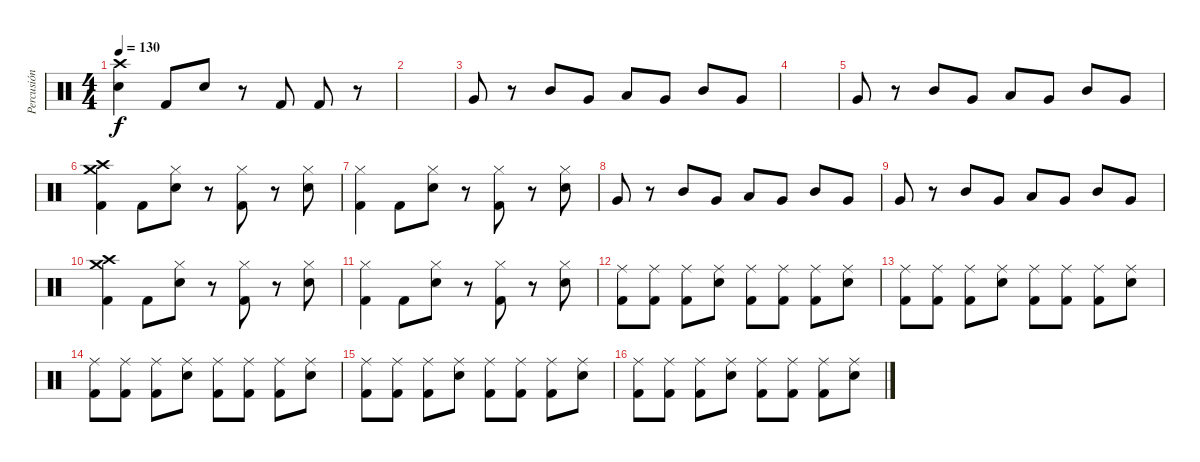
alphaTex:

\track ("Percusión" "Percusión") {instrument percussion}
\staff {score}
\articulation defaults
\ts (4 4)
\tempo 130
\clef neutral
\ks c
("Electric Snare (hit)" "Crash high (hit)").4{dy f} "Kick (hit) 2".8 "Snare (hit) 2".8 r.8 "Kick (hit) 2".8 "Kick (hit) 2".8 r.8 |
|
"Very Low Tom (hit)".8 r.8 "Mid Tom (hit)".8 "Very Low Tom (hit)".8 "Low Floor Tom (hit)".8 "Very Low Tom (hit)".8 "Mid Tom (hit)".8 "Very Low Tom (hit)".8 |
|
"Very Low Tom (hit)".8 r.8 "Mid Tom (hit)".8 "Very Low Tom (hit)".8 "Low Floor Tom (hit)".8 "Very Low Tom (hit)".8 "Mid Tom (hit)".8 "Very Low Tom (hit)".8 |
("Crash high (hit)" "Crash medium (hit)" "Kick (hit) 2").4 "Kick (hit) 2".8 ("Snare (hit) 2" "Hi-Hat (closed)").8 r.8 ("Kick (hit) 2" "Hi-Hat (closed)").8 r.8 ("Snare (hit) 2" "Hi-Hat (closed)").8 |
("Kick (hit) 2" "Hi-Hat (closed)").4 "Kick (hit) 2".8 ("Snare (hit) 2" "Hi-Hat (closed)").8 r.8 ("Kick (hit) 2" "Hi-Hat (closed)").8 r.8 ("Snare (hit) 2" "Hi-Hat (closed)").8 |
"Very Low Tom (hit)".8 r.8 "Mid Tom (hit)".8 "Very Low Tom (hit)".8 "Low Floor Tom (hit)".8 "Very Low Tom (hit)".8 "Mid Tom (hit)".8 "Very Low Tom (hit)".8 |
"Very Low Tom (hit)".8 r.8 "Mid Tom (hit)".8 "Very Low Tom (hit)".8 "Low Floor Tom (hit)".8 "Very Low Tom (hit)".8 "Mid Tom (hit)".8 "Very Low Tom (hit)".8 |
("Crash high (hit)" "Crash medium (hit)" "Kick (hit) 2").4 "Kick (hit) 2".8 ("Snare (hit) 2" "Hi-Hat (closed)").8 r.8 ("Kick (hit) 2" "Hi-Hat (closed)").8 r.8 ("Snare (hit) 2" "Hi-Hat (closed)").8 |
("Kick (hit) 2" "Hi-Hat (closed)").4 "Kick (hit) 2".8 ("Snare (hit) 2" "Hi-Hat (closed)").8 r.8 ("Kick (hit) 2" "Hi-Hat (closed)").8 r.8 ("Snare (hit) 2" "Hi-Hat (closed)").8 |
("Kick (hit) 2" "Ride (middle)").8 ("Kick (hit) 2" "Ride (middle)").8 ("Kick (hit) 2" "Ride (middle)").8 ("Snare (hit) 2" "Ride (middle)").8 ("Kick (hit) 2" "Ride (middle)").8 ("Kick (hit) 2" "Ride (middle)").8 ("Kick (hit) 2" "Ride (middle)").8 ("Snare (hit) 2" "Ride (middle)").8 |
("Kick (hit) 2" "Ride (middle)").8 ("Kick (hit) 2" "Ride (middle)").8 ("Kick (hit) 2" "Ride (middle)").8 ("Snare (hit) 2" "Ride (middle)").8 ("Kick (hit) 2" "Ride (middle)").8 ("Kick (hit) 2" "Ride (middle)").8 ("Kick (hit) 2" "Ride (middle)").8 ("Snare (hit) 2" "Ride (middle)").8 |
("Kick (hit) 2" "Ride (middle)").8 ("Kick (hit) 2" "Ride (middle)").8 ("Kick (hit) 2" "Ride (middle)").8 ("Snare (hit) 2" "Ride (middle)").8 ("Kick (hit) 2" "Ride (middle)").8 ("Kick (hit) 2" "Ride (middle)").8 ("Kick (hit) 2" "Ride (middle)").8 ("Snare (hit) 2" "Ride (middle)").8 |
("Kick (hit) 2" "Ride (middle)").8 ("Kick (hit) 2" "Ride (middle)").8 ("Kick (hit) 2" "Ride (middle)").8 ("Snare (hit) 2" "Ride (middle)").8 ("Kick (hit) 2" "Ride (middle)").8 ("Kick (hit) 2" "Ride (middle)").8 ("Kick (hit) 2" "Ride (middle)").8 ("Snare (hit) 2" "Ride (middle)").8 |
("Kick (hit) 2" "Ride (middle)").8 ("Kick (hit) 2" "Ride (middle)").8 ("Kick (hit) 2" "Ride (middle)").8 ("Snare (hit) 2" "Ride (middle)").8 ("Kick (hit) 2" "Ride (middle)").8 ("Kick (hit) 2" "Ride (middle)").8 ("Kick (hit) 2" "Ride (middle)").8 ("Snare (hit) 2" "Ride (middle)").8
